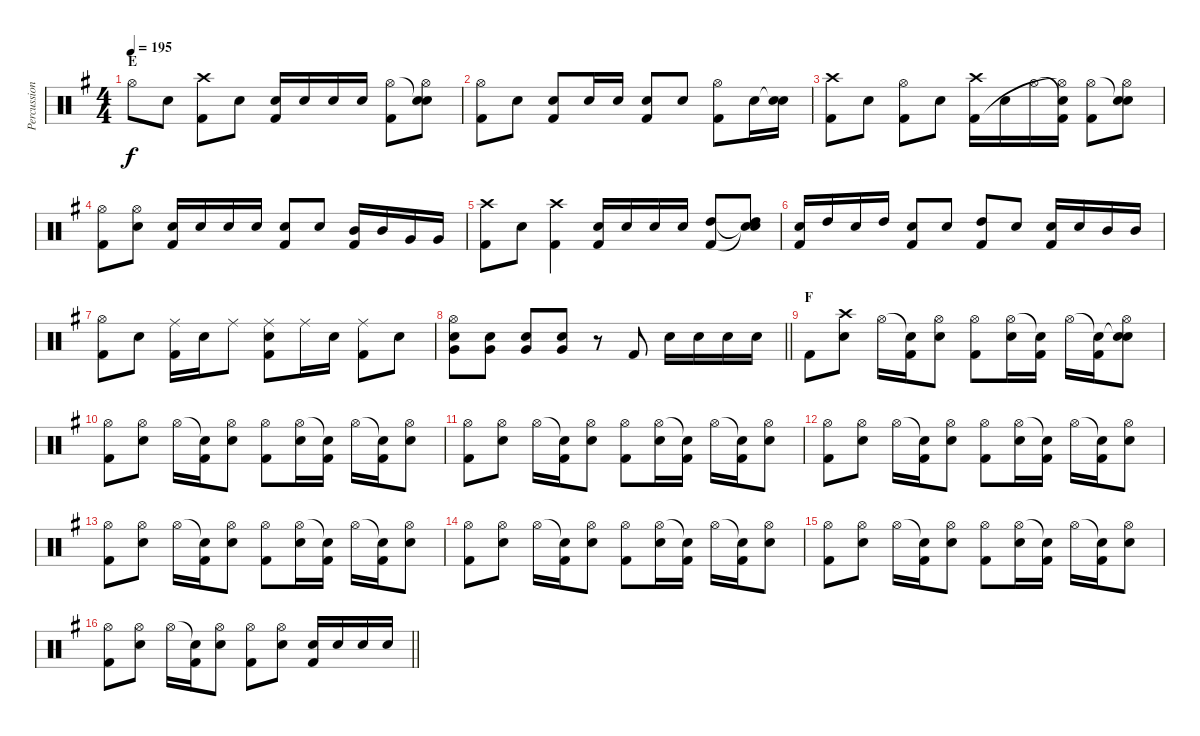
\track ("Percussion" "Percussion") {instrument percussion}
\staff {score}
\articulation defaults
\ts (4 4)
\section ("" "E")
\tempo 195
\clef neutral
\ks g "Hi-Hat (open)".8{dy f} "Electric Snare (hit)".8
("Crash high (hit)" "Kick (hit) 2").8 "Electric Snare (hit)".8 ("Electric Snare (hit)" "Kick (hit) 2").16 "Electric Snare (hit)".16 "Electric Snare (hit)".16 "Electric Snare (hit)".16 ("Hi-Hat (open)" "Kick (hit) 2").8 ("Snare (hit)"{t} "Hi-Hat (open)" "Electric Snare (hit)").8 |
("Hi-Hat (open)" "Kick (hit) 2").8 "Electric Snare (hit)".8 ("Electric Snare (hit)" "Kick (hit) 2").8 "Electric Snare (hit)".16 "Electric Snare (hit)".16 ("Electric Snare (hit)" "Kick (hit) 2").8 "Electric Snare (hit)".8 ("Hi-Hat (open)" "Kick (hit) 2").8 "Electric Snare (hit)".16 ("Snare (hit)"{t} "Electric Snare (hit)").16 |
("Crash high (hit)" "Kick (hit) 2").8 "Electric Snare (hit)".8 ("Hi-Hat (open)" "Kick (hit) 2").8 "Electric Snare (hit)".8 ("Crash high (hit)" "Kick (hit) 2").16 "Electric Snare (hit)".16 "Hi-Hat (open)".16 ("Snare (hit)"{t} "Hi-Hat (open)"{t} "Kick (hit) 2").16 ("Hi-Hat (open)" "Kick (hit) 2").8 ("Snare (hit)"{t} "Hi-Hat (open)" "Electric Snare (hit)").8 |
("Hi-Hat (open)" "Kick (hit) 2").8 ("Hi-Hat (open)" "Electric Snare (hit)").8 ("Electric Snare (hit)" "Kick (hit) 2").16 "Electric Snare (hit)".16 "Electric Snare (hit)".16 "Electric Snare (hit)".16 ("Electric Snare (hit)" "Kick (hit) 2").8 "Electric Snare (hit)".8 ("Mid Tom (hit)" "Kick (hit) 2").16 "Mid Tom (hit)".16 "Very Low Tom (hit)".16 "Very Low Tom (hit)".16 |
("Crash high (hit)" "Kick (hit) 2").8 "Electric Snare (hit)".8 ("Crash high (hit)" "Kick (hit) 2").4 ("Electric Snare (hit)" "Kick (hit) 2").16 "Electric Snare (hit)".16 "Electric Snare (hit)".16 "Electric Snare (hit)".16 ("High Tom (hit)" "Kick (hit) 2").8 ("Snare (hit)"{t} "Snare (hit)"{t} "High Tom (hit)").8 |
("Electric Snare (hit)" "Kick (hit) 2").16 "High Tom (hit)".16 "Electric Snare (hit)".16 "High Tom (hit)".16 ("Electric Snare (hit)" "Kick (hit) 2").8 "Electric Snare (hit)".8 ("High Tom (hit)" "Kick (hit) 2").8 "Electric Snare (hit)".8 ("Electric Snare (hit)" "Kick (hit) 2").16 "Electric Snare (hit)".16 "Mid Tom (hit)".16 "Mid Tom (hit)".16 |
("Hi-Hat (open)" "Kick (hit) 2").8 "Electric Snare (hit)".8 ("Ride (middle)" "Kick (hit) 2").16 "Electric Snare (hit)".16 "Ride (middle)".8 ("Ride (middle)" "Electric Snare (hit)" "Kick (hit) 2").8 "Ride (middle)".16 "Electric Snare (hit)".16 ("Ride (middle)" "Kick (hit) 2").8 "Electric Snare (hit)".8 |
\barLineRight lightlight
("Very Low Tom (hit)" "Electric Snare (hit)" "Hi-Hat (open)").8 ("Electric Snare (hit)" "Very Low Tom (hit)").8 ("Electric Snare (hit)" "Very Low Tom (hit)").8 ("Electric Snare (hit)" "Very Low Tom (hit)").8 r.8 "Kick (hit) 2".8 "Electric Snare (hit)".16 "Electric Snare (hit)".16 "Electric Snare (hit)".16 "Electric Snare (hit)".16 |
\section ("" "F")
"Kick (hit) 2".8 ("Crash high (hit)" "Electric Snare (hit)").8 "Hi-Hat (open)".16 ("Snare (hit)"{t} "Kick (hit) 2").16 ("Hi-Hat (open)" "Electric Snare (hit)").8 ("Hi-Hat (open)" "Kick (hit) 2").8 ("Hi-Hat (open)" "Electric Snare (hit)").16 ("Snare (hit)"{t} "Kick (hit) 2").16 "Hi-Hat (open)".16 ("Snare (hit)"{t} "Kick (hit) 2").16 ("Snare (hit)"{t} "Hi-Hat (open)" "Electric Snare (hit)").8 |
("Hi-Hat (open)" "Kick (hit) 2").8 ("Hi-Hat (open)" "Electric Snare (hit)").8 "Hi-Hat (open)".16 ("Snare (hit)"{t} "Kick (hit) 2").16 ("Hi-Hat (open)" "Electric Snare (hit)").8 ("Hi-Hat (open)" "Kick (hit) 2").8 ("Hi-Hat (open)" "Electric Snare (hit)").16 ("Snare (hit)"{t} "Kick (hit) 2").16 "Hi-Hat (open)".16 ("Snare (hit)"{t} "Kick (hit) 2").16 ("Hi-Hat (open)" "Electric Snare (hit)").8 |
("Hi-Hat (open)" "Kick (hit) 2").8 ("Hi-Hat (open)" "Electric Snare (hit)").8 "Hi-Hat (open)".16 ("Snare (hit)"{t} "Kick (hit) 2").16 ("Hi-Hat (open)" "Electric Snare (hit)").8 ("Hi-Hat (open)" "Kick (hit) 2").8 ("Hi-Hat (open)" "Electric Snare (hit)").16 ("Snare (hit)"{t} "Kick (hit) 2").16 "Hi-Hat (open)".16 ("Snare (hit)"{t} "Kick (hit) 2").16 ("Hi-Hat (open)" "Electric Snare (hit)").8 |
("Hi-Hat (open)" "Kick (hit) 2").8 ("Hi-Hat (open)" "Electric Snare (hit)").8 "Hi-Hat (open)".16 ("Snare (hit)"{t} "Kick (hit) 2").16 ("Hi-Hat (open)" "Electric Snare (hit)").8 ("Hi-Hat (open)" "Kick (hit) 2").8 ("Hi-Hat (open)" "Electric Snare (hit)").16 ("Snare (hit)"{t} "Kick (hit) 2").16 "Hi-Hat (open)".16 ("Snare (hit)"{t} "Kick (hit) 2").16 ("Hi-Hat (open)" "Electric Snare (hit)").8 |
("Hi-Hat (open)" "Kick (hit) 2").8 ("Hi-Hat (open)" "Electric Snare (hit)").8 "Hi-Hat (open)".16 ("Snare (hit)"{t} "Kick (hit) 2").16 ("Hi-Hat (open)" "Electric Snare (hit)").8 ("Hi-Hat (open)" "Kick (hit) 2").8 ("Hi-Hat (open)" "Electric Snare (hit)").16 ("Snare (hit)"{t} "Kick (hit) 2").16 "Hi-Hat (open)".16 ("Snare (hit)"{t} "Kick (hit) 2").16 ("Hi-Hat (open)" "Electric Snare (hit)").8 |
("Hi-Hat (open)" "Kick (hit) 2").8 ("Hi-Hat (open)" "Electric Snare (hit)").8 "Hi-Hat (open)".16 ("Snare (hit)"{t} "Kick (hit) 2").16 ("Hi-Hat (open)" "Electric Snare (hit)").8 ("Hi-Hat (open)" "Kick (hit) 2").8 ("Hi-Hat (open)" "Electric Snare (hit)").16 ("Snare (hit)"{t} "Kick (hit) 2").16 "Hi-Hat (open)".16 ("Snare (hit)"{t} "Kick (hit) 2").16 ("Hi-Hat (open)" "Electric Snare (hit)").8 |
("Hi-Hat (open)" "Kick (hit) 2").8 ("Hi-Hat (open)" "Electric Snare (hit)").8 "Hi-Hat (open)".16 ("Snare (hit)"{t} "Kick (hit) 2").16 ("Hi-Hat (open)" "Electric Snare (hit)").8 ("Hi-Hat (open)" "Kick (hit) 2").8 ("Hi-Hat (open)" "Electric Snare (hit)").16 ("Snare (hit)"{t} "Kick (hit) 2").16 "Hi-Hat (open)".16 ("Snare (hit)"{t} "Kick (hit) 2").16 ("Hi-Hat (open)" "Electric Snare (hit)").8 |
\barLineRight lightlight
("Hi-Hat (open)" "Kick (hit) 2").8 ("Hi-Hat (open)" "Electric Snare (hit)").8 "Hi-Hat (open)".16 ("Snare (hit)"{t} "Kick (hit) 2").16 ("Hi-Hat (open)" "Electric Snare (hit)").8 ("Hi-Hat (open)" "Kick (hit) 2").8 ("Hi-Hat (open)" "Electric Snare (hit)").8 ("Electric Snare (hit)" "Kick (hit) 2").16 "Electric Snare (hit)".16 "Electric Snare (hit)".16 "Electric Snare (hit)".16
